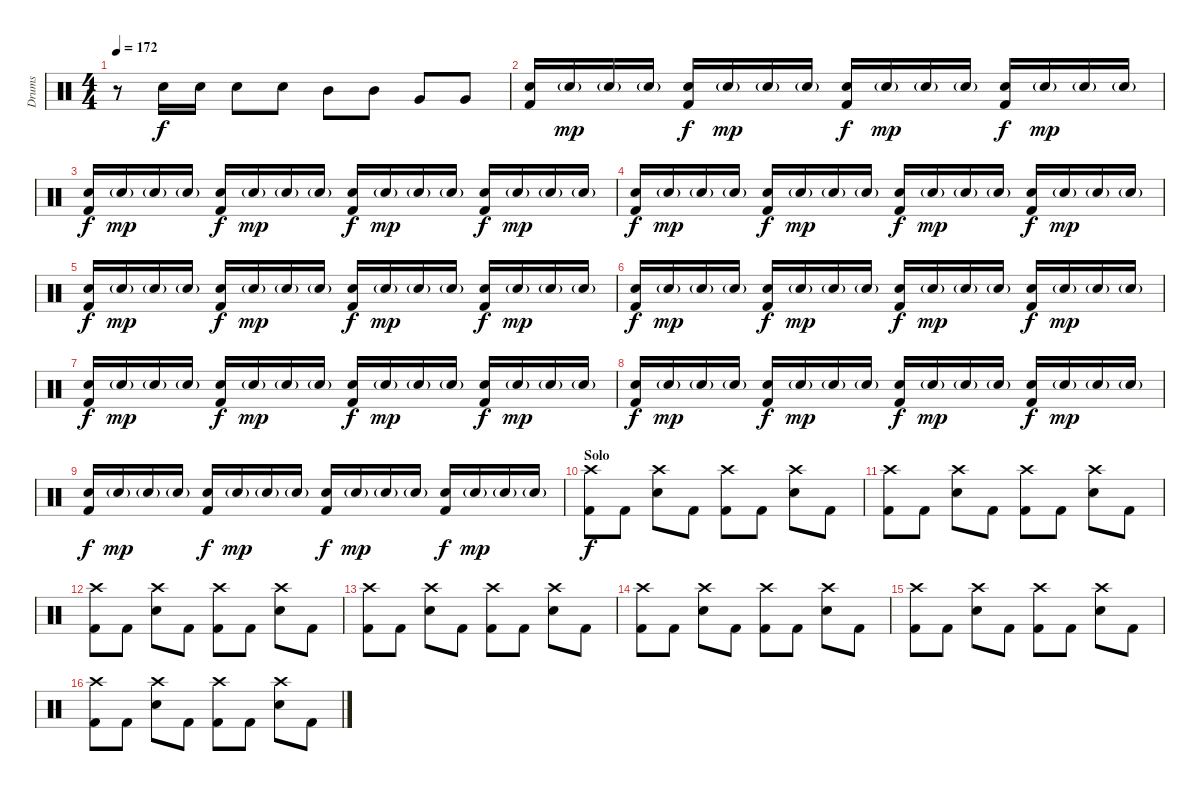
\track ("Drums" "Drums") {instrument percussion}
\staff {score}
\articulation defaults
\ts (4 4)
\tempo 172
\clef neutral
\ks c
r.8{dy f} "Electric Snare (hit)".16 "Electric Snare (hit)".16 "Electric Snare (hit)".8 "Electric Snare (hit)".8 "Mid Tom (hit)".8 "Mid Tom (hit)".8 "Very Low Tom (hit)".8 "Very Low Tom (hit)".8 |
("Electric Snare (hit)" "Kick (hit) 2").16 "Electric Snare (hit)"{g}.16{dy mp} "Electric Snare (hit)"{g}.16 "Electric Snare (hit)"{g}.16 ("Electric Snare (hit)" "Kick (hit) 2").16{dy f} "Electric Snare (hit)"{g}.16{dy mp} "Electric Snare (hit)"{g}.16 "Electric Snare (hit)"{g}.16 ("Electric Snare (hit)" "Kick (hit) 2").16{dy f} "Electric Snare (hit)"{g}.16{dy mp} "Electric Snare (hit)"{g}.16 "Electric Snare (hit)"{g}.16 ("Electric Snare (hit)" "Kick (hit) 2").16{dy f} "Electric Snare (hit)"{g}.16{dy mp} "Electric Snare (hit)"{g}.16 "Electric Snare (hit)"{g}.16 |
("Electric Snare (hit)" "Kick (hit) 2").16{dy f} "Electric Snare (hit)"{g}.16{dy mp} "Electric Snare (hit)"{g}.16 "Electric Snare (hit)"{g}.16 ("Electric Snare (hit)" "Kick (hit) 2").16{dy f} "Electric Snare (hit)"{g}.16{dy mp} "Electric Snare (hit)"{g}.16 "Electric Snare (hit)"{g}.16 ("Electric Snare (hit)" "Kick (hit) 2").16{dy f} "Electric Snare (hit)"{g}.16{dy mp} "Electric Snare (hit)"{g}.16 "Electric Snare (hit)"{g}.16 ("Electric Snare (hit)" "Kick (hit) 2").16{dy f} "Electric Snare (hit)"{g}.16{dy mp} "Electric Snare (hit)"{g}.16 "Electric Snare (hit)"{g}.16 |
("Electric Snare (hit)" "Kick (hit) 2").16{dy f} "Electric Snare (hit)"{g}.16{dy mp} "Electric Snare (hit)"{g}.16 "Electric Snare (hit)"{g}.16 ("Electric Snare (hit)" "Kick (hit) 2").16{dy f} "Electric Snare (hit)"{g}.16{dy mp} "Electric Snare (hit)"{g}.16 "Electric Snare (hit)"{g}.16 ("Electric Snare (hit)" "Kick (hit) 2").16{dy f} "Electric Snare (hit)"{g}.16{dy mp} "Electric Snare (hit)"{g}.16 "Electric Snare (hit)"{g}.16 ("Electric Snare (hit)" "Kick (hit) 2").16{dy f} "Electric Snare (hit)"{g}.16{dy mp} "Electric Snare (hit)"{g}.16 "Electric Snare (hit)"{g}.16 |
("Electric Snare (hit)" "Kick (hit) 2").16{dy f} "Electric Snare (hit)"{g}.16{dy mp} "Electric Snare (hit)"{g}.16 "Electric Snare (hit)"{g}.16 ("Electric Snare (hit)" "Kick (hit) 2").16{dy f} "Electric Snare (hit)"{g}.16{dy mp} "Electric Snare (hit)"{g}.16 "Electric Snare (hit)"{g}.16 ("Electric Snare (hit)" "Kick (hit) 2").16{dy f} "Electric Snare (hit)"{g}.16{dy mp} "Electric Snare (hit)"{g}.16 "Electric Snare (hit)"{g}.16 ("Electric Snare (hit)" "Kick (hit) 2").16{dy f} "Electric Snare (hit)"{g}.16{dy mp} "Electric Snare (hit)"{g}.16 "Electric Snare (hit)"{g}.16 |
("Electric Snare (hit)" "Kick (hit) 2").16{dy f} "Electric Snare (hit)"{g}.16{dy mp} "Electric Snare (hit)"{g}.16 "Electric Snare (hit)"{g}.16 ("Electric Snare (hit)" "Kick (hit) 2").16{dy f} "Electric Snare (hit)"{g}.16{dy mp} "Electric Snare (hit)"{g}.16 "Electric Snare (hit)"{g}.16 ("Electric Snare (hit)" "Kick (hit) 2").16{dy f} "Electric Snare (hit)"{g}.16{dy mp} "Electric Snare (hit)"{g}.16 "Electric Snare (hit)"{g}.16 ("Electric Snare (hit)" "Kick (hit) 2").16{dy f} "Electric Snare (hit)"{g}.16{dy mp} "Electric Snare (hit)"{g}.16 "Electric Snare (hit)"{g}.16 |
("Electric Snare (hit)" "Kick (hit) 2").16{dy f} "Electric Snare (hit)"{g}.16{dy mp} "Electric Snare (hit)"{g}.16 "Electric Snare (hit)"{g}.16 ("Electric Snare (hit)" "Kick (hit) 2").16{dy f} "Electric Snare (hit)"{g}.16{dy mp} "Electric Snare (hit)"{g}.16 "Electric Snare (hit)"{g}.16 ("Electric Snare (hit)" "Kick (hit) 2").16{dy f} "Electric Snare (hit)"{g}.16{dy mp} "Electric Snare (hit)"{g}.16 "Electric Snare (hit)"{g}.16 ("Electric Snare (hit)" "Kick (hit) 2").16{dy f} "Electric Snare (hit)"{g}.16{dy mp} "Electric Snare (hit)"{g}.16 "Electric Snare (hit)"{g}.16 |
("Electric Snare (hit)" "Kick (hit) 2").16{dy f volume 15} "Electric Snare (hit)"{g}.16{dy mp} "Electric Snare (hit)"{g}.16 "Electric Snare (hit)"{g}.16 ("Electric Snare (hit)" "Kick (hit) 2").16{dy f} "Electric Snare (hit)"{g}.16{dy mp} "Electric Snare (hit)"{g}.16 "Electric Snare (hit)"{g}.16 ("Electric Snare (hit)" "Kick (hit) 2").16{dy f} "Electric Snare (hit)"{g}.16{dy mp} "Electric Snare (hit)"{g}.16 "Electric Snare (hit)"{g}.16 ("Electric Snare (hit)" "Kick (hit) 2").16{dy f} "Electric Snare (hit)"{g}.16{dy mp} "Electric Snare (hit)"{g}.16 "Electric Snare (hit)"{g}.16 |
("Electric Snare (hit)" "Kick (hit) 2").16{dy f volume 16} "Electric Snare (hit)"{g}.16{dy mp} "Electric Snare (hit)"{g}.16 "Electric Snare (hit)"{g}.16 ("Electric Snare (hit)" "Kick (hit) 2").16{dy f} "Electric Snare (hit)"{g}.16{dy mp} "Electric Snare (hit)"{g}.16 "Electric Snare (hit)"{g}.16 ("Electric Snare (hit)" "Kick (hit) 2").16{dy f} "Electric Snare (hit)"{g}.16{dy mp} "Electric Snare (hit)"{g}.16 "Electric Snare (hit)"{g}.16 ("Electric Snare (hit)" "Kick (hit) 2").16{dy f} "Electric Snare (hit)"{g}.16{dy mp} "Electric Snare (hit)"{g}.16 "Electric Snare (hit)"{g}.16 |
\section ("" "Solo")
("Crash high (hit)" "Kick (hit) 2").8{dy f} "Kick (hit) 2".8 ("Crash high (hit)" "Electric Snare (hit)").8 "Kick (hit) 2".8 ("Crash high (hit)" "Kick (hit) 2").8 "Kick (hit) 2".8 ("Crash high (hit)" "Electric Snare (hit)").8 "Kick (hit) 2".8 |
("Crash high (hit)" "Kick (hit) 2").8 "Kick (hit) 2".8 ("Crash high (hit)" "Electric Snare (hit)").8 "Kick (hit) 2".8 ("Crash high (hit)" "Kick (hit) 2").8 "Kick (hit) 2".8 ("Crash high (hit)" "Electric Snare (hit)").8 "Kick (hit) 2".8 |
("Crash high (hit)" "Kick (hit) 2").8 "Kick (hit) 2".8 ("Crash high (hit)" "Electric Snare (hit)").8 "Kick (hit) 2".8 ("Crash high (hit)" "Kick (hit) 2").8 "Kick (hit) 2".8 ("Crash high (hit)" "Electric Snare (hit)").8 "Kick (hit) 2".8 |
("Crash high (hit)" "Kick (hit) 2").8 "Kick (hit) 2".8 ("Crash high (hit)" "Electric Snare (hit)").8 "Kick (hit) 2".8 ("Crash high (hit)" "Kick (hit) 2").8 "Kick (hit) 2".8 ("Crash high (hit)" "Electric Snare (hit)").8 "Kick (hit) 2".8 |
("Crash high (hit)" "Kick (hit) 2").8 "Kick (hit) 2".8 ("Crash high (hit)" "Electric Snare (hit)").8 "Kick (hit) 2".8 ("Crash high (hit)" "Kick (hit) 2").8 "Kick (hit) 2".8 ("Crash high (hit)" "Electric Snare (hit)").8 "Kick (hit) 2".8 |
("Crash high (hit)" "Kick (hit) 2").8 "Kick (hit) 2".8 ("Crash high (hit)" "Electric Snare (hit)").8 "Kick (hit) 2".8 ("Crash high (hit)" "Kick (hit) 2").8 "Kick (hit) 2".8 ("Crash high (hit)" "Electric Snare (hit)").8 "Kick (hit) 2".8 |
("Crash high (hit)" "Kick (hit) 2").8 "Kick (hit) 2".8 ("Crash high (hit)" "Electric Snare (hit)").8 "Kick (hit) 2".8 ("Crash high (hit)" "Kick (hit) 2").8 "Kick (hit) 2".8 ("Crash high (hit)" "Electric Snare (hit)").8 "Kick (hit) 2".8
